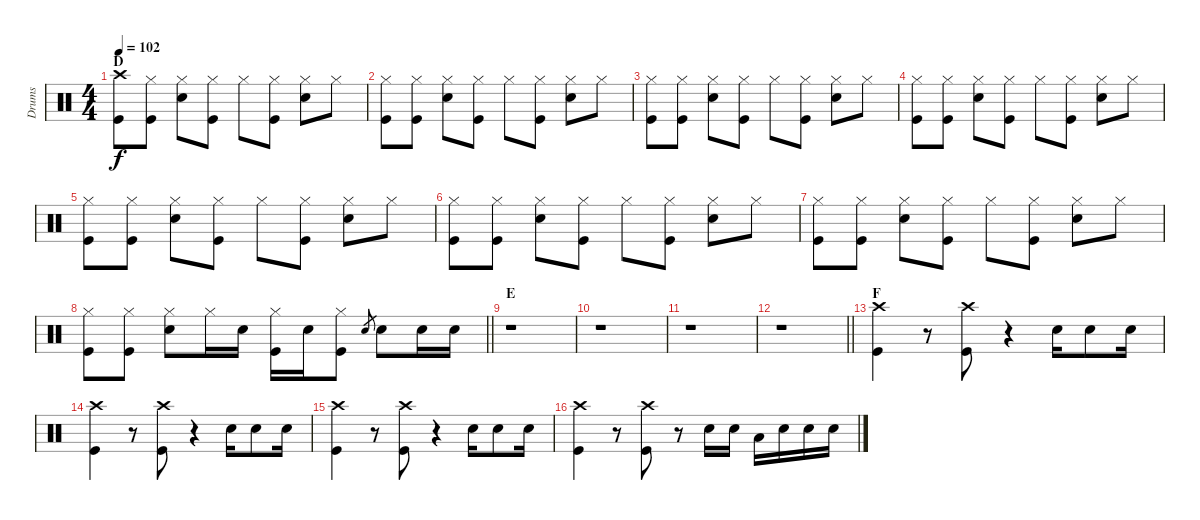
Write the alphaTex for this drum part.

\track ("Drums" "Drums") {instrument percussion}
\staff {score}
\articulation defaults
\ts (4 4)
\section ("" "D")
\tempo 102
\clef neutral
\ks c
("Crash high (hit)" "Kick (hit)").8{dy f} ("Hi-Hat (closed)" "Kick (hit)").8 ("Hi-Hat (closed)" "Electric Snare (hit)").8 ("Hi-Hat (closed)" "Kick (hit)").8 "Hi-Hat (closed)".8 ("Hi-Hat (closed)" "Kick (hit)").8 ("Hi-Hat (closed)" "Electric Snare (hit)").8 "Hi-Hat (closed)".8 |
("Hi-Hat (closed)" "Kick (hit)").8 ("Hi-Hat (closed)" "Kick (hit)").8 ("Hi-Hat (closed)" "Electric Snare (hit)").8 ("Hi-Hat (closed)" "Kick (hit)").8 "Hi-Hat (closed)".8 ("Hi-Hat (closed)" "Kick (hit)").8 ("Hi-Hat (closed)" "Electric Snare (hit)").8 "Hi-Hat (closed)".8 |
("Hi-Hat (closed)" "Kick (hit)").8 ("Hi-Hat (closed)" "Kick (hit)").8 ("Hi-Hat (closed)" "Electric Snare (hit)").8 ("Hi-Hat (closed)" "Kick (hit)").8 "Hi-Hat (closed)".8 ("Hi-Hat (closed)" "Kick (hit)").8 ("Hi-Hat (closed)" "Electric Snare (hit)").8 "Hi-Hat (closed)".8 |
("Hi-Hat (closed)" "Kick (hit)").8 ("Hi-Hat (closed)" "Kick (hit)").8 ("Hi-Hat (closed)" "Electric Snare (hit)").8 ("Hi-Hat (closed)" "Kick (hit)").8 "Hi-Hat (closed)".8 ("Hi-Hat (closed)" "Kick (hit)").8 ("Hi-Hat (closed)" "Electric Snare (hit)").8 "Hi-Hat (closed)".8 |
("Hi-Hat (closed)" "Kick (hit)").8 ("Hi-Hat (closed)" "Kick (hit)").8 ("Hi-Hat (closed)" "Electric Snare (hit)").8 ("Hi-Hat (closed)" "Kick (hit)").8 "Hi-Hat (closed)".8 ("Hi-Hat (closed)" "Kick (hit)").8 ("Hi-Hat (closed)" "Electric Snare (hit)").8 "Hi-Hat (closed)".8 |
("Hi-Hat (closed)" "Kick (hit)").8 ("Hi-Hat (closed)" "Kick (hit)").8 ("Hi-Hat (closed)" "Electric Snare (hit)").8 ("Hi-Hat (closed)" "Kick (hit)").8 "Hi-Hat (closed)".8 ("Hi-Hat (closed)" "Kick (hit)").8 ("Hi-Hat (closed)" "Electric Snare (hit)").8 "Hi-Hat (closed)".8 |
("Hi-Hat (closed)" "Kick (hit)").8 ("Hi-Hat (closed)" "Kick (hit)").8 ("Hi-Hat (closed)" "Electric Snare (hit)").8 ("Hi-Hat (closed)" "Kick (hit)").8 "Hi-Hat (closed)".8 ("Hi-Hat (closed)" "Kick (hit)").8 ("Hi-Hat (closed)" "Electric Snare (hit)").8 "Hi-Hat (closed)".8 |
\barLineRight lightlight
("Hi-Hat (closed)" "Kick (hit)").8 ("Hi-Hat (closed)" "Kick (hit)").8 ("Hi-Hat (closed)" "Electric Snare (hit)").8 "Hi-Hat (closed)".16 "Electric Snare (hit)".16 ("Hi-Hat (closed)" "Kick (hit)").16 "Electric Snare (hit)".16 ("Hi-Hat (closed)" "Kick (hit)").8 "Electric Snare (hit)".8{gr} "Electric Snare (hit)".8 "Electric Snare (hit)".16 "Electric Snare (hit)".16 |
\section ("" "E")
r.1 |
r.1 |
r.1 |
\barLineRight lightlight
r.1 |
\section ("" "F")
("Crash high (hit)" "Kick (hit)").4 r.8 ("Crash high (hit)" "Kick (hit)").8 r.4 "Electric Snare (hit)".16 "Electric Snare (hit)".8 "Electric Snare (hit)".16 |
("Crash high (hit)" "Kick (hit)").4 r.8 ("Crash high (hit)" "Kick (hit)").8 r.4 "Electric Snare (hit)".16 "Electric Snare (hit)".8 "Electric Snare (hit)".16 |
("Crash high (hit)" "Kick (hit)").4 r.8 ("Crash high (hit)" "Kick (hit)").8 r.4 "Electric Snare (hit)".16 "Electric Snare (hit)".8 "Electric Snare (hit)".16 |
("Crash high (hit)" "Kick (hit)").4 r.8 ("Crash high (hit)" "Kick (hit)").8 r.8 "Electric Snare (hit)".16 "Electric Snare (hit)".16 "Low Tom (hit)".16 "Electric Snare (hit)".16 "Electric Snare (hit)".16 "Electric Snare (hit)".16
